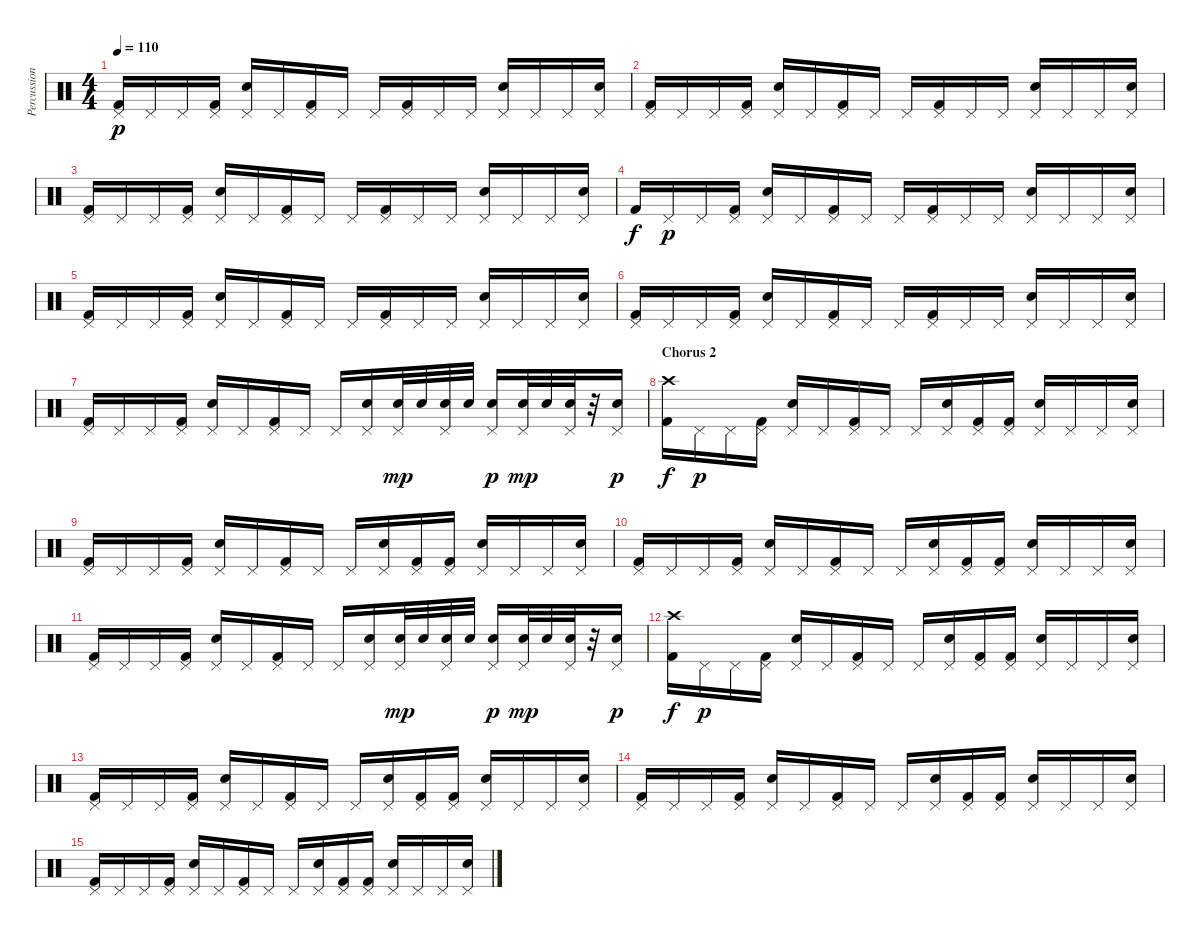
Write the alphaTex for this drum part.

\track ("Percussion" "Percussion") {instrument percussion}
\staff {score}
\articulation defaults
\ts (4 4)
\tempo 110
\clef neutral
\ks c
("Pedal Hi-Hat (hit)" "Kick (hit) 2").16{dy p} "Pedal Hi-Hat (hit)".16 "Pedal Hi-Hat (hit)".16 ("Pedal Hi-Hat (hit)" "Kick (hit) 2").16 ("Pedal Hi-Hat (hit)" "Electric Snare (hit)").16 "Pedal Hi-Hat (hit)".16 ("Pedal Hi-Hat (hit)" "Kick (hit) 2").16 "Pedal Hi-Hat (hit)".16 "Pedal Hi-Hat (hit)".16 ("Pedal Hi-Hat (hit)" "Kick (hit) 2").16 "Pedal Hi-Hat (hit)".16 "Pedal Hi-Hat (hit)".16 ("Pedal Hi-Hat (hit)" "Electric Snare (hit)").16 "Pedal Hi-Hat (hit)".16 "Pedal Hi-Hat (hit)".16 ("Pedal Hi-Hat (hit)" "Electric Snare (hit)").16 |
("Pedal Hi-Hat (hit)" "Kick (hit) 2").16 "Pedal Hi-Hat (hit)".16 "Pedal Hi-Hat (hit)".16 ("Pedal Hi-Hat (hit)" "Kick (hit) 2").16 ("Pedal Hi-Hat (hit)" "Electric Snare (hit)").16 "Pedal Hi-Hat (hit)".16 ("Pedal Hi-Hat (hit)" "Kick (hit) 2").16 "Pedal Hi-Hat (hit)".16 "Pedal Hi-Hat (hit)".16 ("Pedal Hi-Hat (hit)" "Kick (hit) 2").16 "Pedal Hi-Hat (hit)".16 "Pedal Hi-Hat (hit)".16 ("Pedal Hi-Hat (hit)" "Electric Snare (hit)").16 "Pedal Hi-Hat (hit)".16 "Pedal Hi-Hat (hit)".16 ("Pedal Hi-Hat (hit)" "Electric Snare (hit)").16 |
("Pedal Hi-Hat (hit)" "Kick (hit) 2").16 "Pedal Hi-Hat (hit)".16 "Pedal Hi-Hat (hit)".16 ("Pedal Hi-Hat (hit)" "Kick (hit) 2").16 ("Pedal Hi-Hat (hit)" "Electric Snare (hit)").16 "Pedal Hi-Hat (hit)".16 ("Pedal Hi-Hat (hit)" "Kick (hit) 2").16 "Pedal Hi-Hat (hit)".16 "Pedal Hi-Hat (hit)".16 ("Pedal Hi-Hat (hit)" "Kick (hit) 2").16 "Pedal Hi-Hat (hit)".16 "Pedal Hi-Hat (hit)".16 ("Pedal Hi-Hat (hit)" "Electric Snare (hit)").16 "Pedal Hi-Hat (hit)".16 "Pedal Hi-Hat (hit)".16 ("Pedal Hi-Hat (hit)" "Electric Snare (hit)").16 |
"Kick (hit) 2".16{dy f} "Pedal Hi-Hat (hit)".16{dy p} "Pedal Hi-Hat (hit)".16 ("Pedal Hi-Hat (hit)" "Kick (hit) 2").16 ("Pedal Hi-Hat (hit)" "Electric Snare (hit)").16 "Pedal Hi-Hat (hit)".16 ("Pedal Hi-Hat (hit)" "Kick (hit) 2").16 "Pedal Hi-Hat (hit)".16 "Pedal Hi-Hat (hit)".16 ("Pedal Hi-Hat (hit)" "Kick (hit) 2").16 "Pedal Hi-Hat (hit)".16 "Pedal Hi-Hat (hit)".16 ("Pedal Hi-Hat (hit)" "Electric Snare (hit)").16 "Pedal Hi-Hat (hit)".16 "Pedal Hi-Hat (hit)".16 ("Pedal Hi-Hat (hit)" "Electric Snare (hit)").16 |
("Pedal Hi-Hat (hit)" "Kick (hit) 2").16 "Pedal Hi-Hat (hit)".16 "Pedal Hi-Hat (hit)".16 ("Pedal Hi-Hat (hit)" "Kick (hit) 2").16 ("Pedal Hi-Hat (hit)" "Electric Snare (hit)").16 "Pedal Hi-Hat (hit)".16 ("Pedal Hi-Hat (hit)" "Kick (hit) 2").16 "Pedal Hi-Hat (hit)".16 "Pedal Hi-Hat (hit)".16 ("Pedal Hi-Hat (hit)" "Kick (hit) 2").16 "Pedal Hi-Hat (hit)".16 "Pedal Hi-Hat (hit)".16 ("Pedal Hi-Hat (hit)" "Electric Snare (hit)").16 "Pedal Hi-Hat (hit)".16 "Pedal Hi-Hat (hit)".16 ("Pedal Hi-Hat (hit)" "Electric Snare (hit)").16 |
("Pedal Hi-Hat (hit)" "Kick (hit) 2").16 "Pedal Hi-Hat (hit)".16 "Pedal Hi-Hat (hit)".16 ("Pedal Hi-Hat (hit)" "Kick (hit) 2").16 ("Pedal Hi-Hat (hit)" "Electric Snare (hit)").16 "Pedal Hi-Hat (hit)".16 ("Pedal Hi-Hat (hit)" "Kick (hit) 2").16 "Pedal Hi-Hat (hit)".16 "Pedal Hi-Hat (hit)".16 ("Pedal Hi-Hat (hit)" "Kick (hit) 2").16 "Pedal Hi-Hat (hit)".16 "Pedal Hi-Hat (hit)".16 ("Pedal Hi-Hat (hit)" "Electric Snare (hit)").16 "Pedal Hi-Hat (hit)".16 "Pedal Hi-Hat (hit)".16 ("Pedal Hi-Hat (hit)" "Electric Snare (hit)").16 |
("Pedal Hi-Hat (hit)" "Kick (hit) 2").16 "Pedal Hi-Hat (hit)".16 "Pedal Hi-Hat (hit)".16 ("Pedal Hi-Hat (hit)" "Kick (hit) 2").16 ("Pedal Hi-Hat (hit)" "Electric Snare (hit)").16 "Pedal Hi-Hat (hit)".16 ("Pedal Hi-Hat (hit)" "Kick (hit) 2").16 "Pedal Hi-Hat (hit)".16 "Pedal Hi-Hat (hit)".16 ("Pedal Hi-Hat (hit)" "Electric Snare (hit)").16 ("Pedal Hi-Hat (hit)" "Snare (hit)").32{dy mp} "Snare (hit)".32 ("Pedal Hi-Hat (hit)" "Snare (hit)").32 "Snare (hit)".32 ("Pedal Hi-Hat (hit)" "Electric Snare (hit)").16{dy p} ("Pedal Hi-Hat (hit)" "Snare (hit)").32{dy mp} "Snare (hit)".32 ("Pedal Hi-Hat (hit)" "Snare (hit)").32 r.32 ("Pedal Hi-Hat (hit)" "Electric Snare (hit)").16{dy p} |
\section ("" "Chorus 2")
("Crash high (hit)" "Kick (hit) 2").16{dy f volume 16} "Pedal Hi-Hat (hit)".16{dy p} "Pedal Hi-Hat (hit)".16 ("Pedal Hi-Hat (hit)" "Kick (hit) 2").16 ("Pedal Hi-Hat (hit)" "Electric Snare (hit)").16 "Pedal Hi-Hat (hit)".16 ("Pedal Hi-Hat (hit)" "Kick (hit) 2").16 "Pedal Hi-Hat (hit)".16 "Pedal Hi-Hat (hit)".16 ("Pedal Hi-Hat (hit)" "Electric Snare (hit)").16 ("Pedal Hi-Hat (hit)" "Kick (hit) 2").16 ("Pedal Hi-Hat (hit)" "Kick (hit) 2").16 ("Pedal Hi-Hat (hit)" "Electric Snare (hit)").16 "Pedal Hi-Hat (hit)".16 "Pedal Hi-Hat (hit)".16 ("Pedal Hi-Hat (hit)" "Electric Snare (hit)").16 |
("Pedal Hi-Hat (hit)" "Kick (hit) 2").16 "Pedal Hi-Hat (hit)".16 "Pedal Hi-Hat (hit)".16 ("Pedal Hi-Hat (hit)" "Kick (hit) 2").16 ("Pedal Hi-Hat (hit)" "Electric Snare (hit)").16 "Pedal Hi-Hat (hit)".16 ("Pedal Hi-Hat (hit)" "Kick (hit) 2").16 "Pedal Hi-Hat (hit)".16 "Pedal Hi-Hat (hit)".16 ("Pedal Hi-Hat (hit)" "Electric Snare (hit)").16 ("Pedal Hi-Hat (hit)" "Kick (hit) 2").16 ("Pedal Hi-Hat (hit)" "Kick (hit) 2").16 ("Pedal Hi-Hat (hit)" "Electric Snare (hit)").16 "Pedal Hi-Hat (hit)".16 "Pedal Hi-Hat (hit)".16 ("Pedal Hi-Hat (hit)" "Electric Snare (hit)").16 |
("Pedal Hi-Hat (hit)" "Kick (hit) 2").16 "Pedal Hi-Hat (hit)".16 "Pedal Hi-Hat (hit)".16 ("Pedal Hi-Hat (hit)" "Kick (hit) 2").16 ("Pedal Hi-Hat (hit)" "Electric Snare (hit)").16 "Pedal Hi-Hat (hit)".16 ("Pedal Hi-Hat (hit)" "Kick (hit) 2").16 "Pedal Hi-Hat (hit)".16 "Pedal Hi-Hat (hit)".16 ("Pedal Hi-Hat (hit)" "Electric Snare (hit)").16 ("Pedal Hi-Hat (hit)" "Kick (hit) 2").16 ("Pedal Hi-Hat (hit)" "Kick (hit) 2").16 ("Pedal Hi-Hat (hit)" "Electric Snare (hit)").16 "Pedal Hi-Hat (hit)".16 "Pedal Hi-Hat (hit)".16 ("Pedal Hi-Hat (hit)" "Electric Snare (hit)").16 |
("Pedal Hi-Hat (hit)" "Kick (hit) 2").16 "Pedal Hi-Hat (hit)".16 "Pedal Hi-Hat (hit)".16 ("Pedal Hi-Hat (hit)" "Kick (hit) 2").16 ("Pedal Hi-Hat (hit)" "Electric Snare (hit)").16 "Pedal Hi-Hat (hit)".16 ("Pedal Hi-Hat (hit)" "Kick (hit) 2").16 "Pedal Hi-Hat (hit)".16 "Pedal Hi-Hat (hit)".16 ("Pedal Hi-Hat (hit)" "Electric Snare (hit)").16 ("Pedal Hi-Hat (hit)" "Snare (hit)").32{dy mp} "Snare (hit)".32 ("Pedal Hi-Hat (hit)" "Snare (hit)").32 "Snare (hit)".32 ("Pedal Hi-Hat (hit)" "Electric Snare (hit)").16{dy p} ("Pedal Hi-Hat (hit)" "Snare (hit)").32{dy mp} "Snare (hit)".32 ("Pedal Hi-Hat (hit)" "Snare (hit)").32 r.32 ("Pedal Hi-Hat (hit)" "Electric Snare (hit)").16{dy p} |
("Crash high (hit)" "Kick (hit) 2").16{dy f volume 16} "Pedal Hi-Hat (hit)".16{dy p} "Pedal Hi-Hat (hit)".16 ("Pedal Hi-Hat (hit)" "Kick (hit) 2").16 ("Pedal Hi-Hat (hit)" "Electric Snare (hit)").16 "Pedal Hi-Hat (hit)".16 ("Pedal Hi-Hat (hit)" "Kick (hit) 2").16 "Pedal Hi-Hat (hit)".16 "Pedal Hi-Hat (hit)".16 ("Pedal Hi-Hat (hit)" "Electric Snare (hit)").16 ("Pedal Hi-Hat (hit)" "Kick (hit) 2").16 ("Pedal Hi-Hat (hit)" "Kick (hit) 2").16 ("Pedal Hi-Hat (hit)" "Electric Snare (hit)").16 "Pedal Hi-Hat (hit)".16 "Pedal Hi-Hat (hit)".16 ("Pedal Hi-Hat (hit)" "Electric Snare (hit)").16 |
("Pedal Hi-Hat (hit)" "Kick (hit) 2").16 "Pedal Hi-Hat (hit)".16 "Pedal Hi-Hat (hit)".16 ("Pedal Hi-Hat (hit)" "Kick (hit) 2").16 ("Pedal Hi-Hat (hit)" "Electric Snare (hit)").16 "Pedal Hi-Hat (hit)".16 ("Pedal Hi-Hat (hit)" "Kick (hit) 2").16 "Pedal Hi-Hat (hit)".16 "Pedal Hi-Hat (hit)".16 ("Pedal Hi-Hat (hit)" "Electric Snare (hit)").16 ("Pedal Hi-Hat (hit)" "Kick (hit) 2").16 ("Pedal Hi-Hat (hit)" "Kick (hit) 2").16 ("Pedal Hi-Hat (hit)" "Electric Snare (hit)").16 "Pedal Hi-Hat (hit)".16 "Pedal Hi-Hat (hit)".16 ("Pedal Hi-Hat (hit)" "Electric Snare (hit)").16 |
("Pedal Hi-Hat (hit)" "Kick (hit) 2").16 "Pedal Hi-Hat (hit)".16 "Pedal Hi-Hat (hit)".16 ("Pedal Hi-Hat (hit)" "Kick (hit) 2").16 ("Pedal Hi-Hat (hit)" "Electric Snare (hit)").16 "Pedal Hi-Hat (hit)".16 ("Pedal Hi-Hat (hit)" "Kick (hit) 2").16 "Pedal Hi-Hat (hit)".16 "Pedal Hi-Hat (hit)".16 ("Pedal Hi-Hat (hit)" "Electric Snare (hit)").16 ("Pedal Hi-Hat (hit)" "Kick (hit) 2").16 ("Pedal Hi-Hat (hit)" "Kick (hit) 2").16 ("Pedal Hi-Hat (hit)" "Electric Snare (hit)").16 "Pedal Hi-Hat (hit)".16 "Pedal Hi-Hat (hit)".16 ("Pedal Hi-Hat (hit)" "Electric Snare (hit)").16 |
("Pedal Hi-Hat (hit)" "Kick (hit) 2").16 "Pedal Hi-Hat (hit)".16 "Pedal Hi-Hat (hit)".16 ("Pedal Hi-Hat (hit)" "Kick (hit) 2").16 ("Pedal Hi-Hat (hit)" "Electric Snare (hit)").16 "Pedal Hi-Hat (hit)".16 ("Pedal Hi-Hat (hit)" "Kick (hit) 2").16 "Pedal Hi-Hat (hit)".16 "Pedal Hi-Hat (hit)".16 ("Pedal Hi-Hat (hit)" "Electric Snare (hit)").16 ("Pedal Hi-Hat (hit)" "Kick (hit) 2").16 ("Pedal Hi-Hat (hit)" "Kick (hit) 2").16 ("Pedal Hi-Hat (hit)" "Electric Snare (hit)").16 "Pedal Hi-Hat (hit)".16 "Pedal Hi-Hat (hit)".16 ("Pedal Hi-Hat (hit)" "Electric Snare (hit)").16
